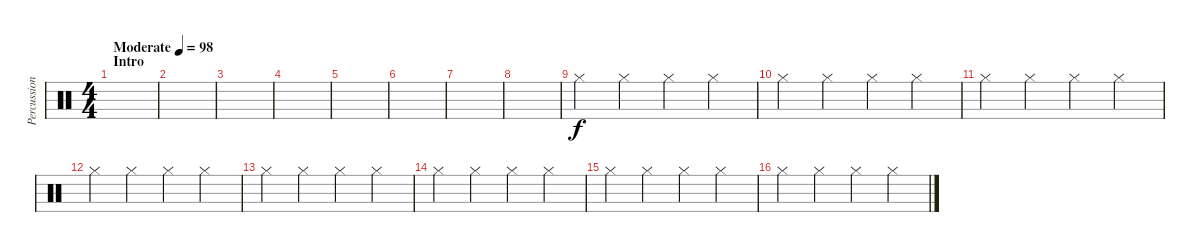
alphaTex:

\track ("Percussion" "Percussion") {instrument percussion}
\staff {score}
\articulation defaults
\ts (4 4)
\section ("" "Intro")
\tempo (98 "Moderate")
\clef neutral
\ks c
|
|
|
|
|
|
|
|
"Hi-Hat (closed)".4 "Hi-Hat (closed)".4 "Hi-Hat (closed)".4 "Hi-Hat (closed)".4 |
"Hi-Hat (closed)".4 "Hi-Hat (closed)".4 "Hi-Hat (closed)".4 "Hi-Hat (closed)".4 |
"Hi-Hat (closed)".4 "Hi-Hat (closed)".4 "Hi-Hat (closed)".4 "Hi-Hat (closed)".4 |
"Hi-Hat (closed)".4 "Hi-Hat (closed)".4 "Hi-Hat (closed)".4 "Hi-Hat (closed)".4 |
"Hi-Hat (closed)".4 "Hi-Hat (closed)".4 "Hi-Hat (closed)".4 "Hi-Hat (closed)".4 |
"Hi-Hat (closed)".4 "Hi-Hat (closed)".4 "Hi-Hat (closed)".4 "Hi-Hat (closed)".4 |
"Hi-Hat (closed)".4 "Hi-Hat (closed)".4 "Hi-Hat (closed)".4 "Hi-Hat (closed)".4 |
"Hi-Hat (closed)".4 "Hi-Hat (closed)".4 "Hi-Hat (closed)".4 "Hi-Hat (closed)".4
